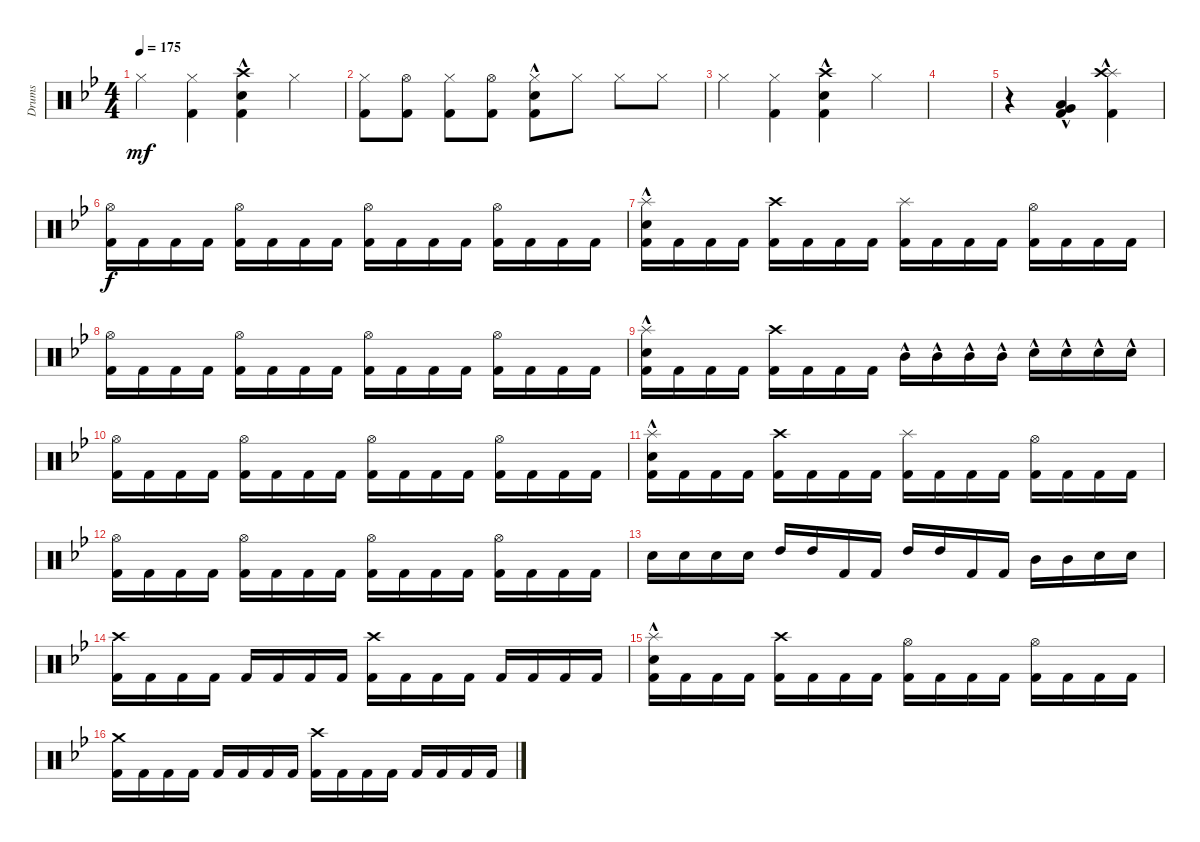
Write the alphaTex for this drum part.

\defaultSystemsLayout 4
\bracketExtendMode groupsimilarinstruments
\otherSystemsTrackNameOrientation horizontal
\track ("Drumkit" "Drums") {instrument percussion}
\staff {score}
\articulation defaults
\ts (4 4)
\tempo 175
\clef neutral
\scale
0.333333
\ks bb "Hi-Hat (closed)"{acc forcenatural}.4{dy mf}
("Kick (hit) 2"{acc forcenatural} "Hi-Hat (closed)"{acc forcenatural}).4 ("Snare (hit) 2"{hac acc forcenatural} "Crash high (hit)"{acc forcenatural} "Kick (hit) 2"{acc forcenatural}).4 "Hi-Hat (closed)"{acc forcenatural}.4 |
\scale
0.333333 ("Kick (hit) 2"{acc forcenatural} "Hi-Hat (closed)"{acc forcenatural}).8 ("Kick (hit) 2"{acc forcenatural} "Hi-Hat (open)"{acc forcenatural}).8 ("Kick (hit) 2"{acc forcenatural} "Hi-Hat (closed)"{acc forcenatural}).8 ("Kick (hit) 2"{acc forcenatural} "Hi-Hat (open)"{acc forcenatural}).8 ("Kick (hit) 2"{acc forcenatural} "Snare (hit) 2"{hac acc forcenatural} "Hi-Hat (closed)"{acc forcenatural}).8 "Hi-Hat (closed)"{acc forcenatural}.8 "Hi-Hat (closed)"{acc forcenatural}.8 "Hi-Hat (closed)"{acc forcenatural}.8 |
\scale
0.333333 "Hi-Hat (closed)"{acc forcenatural}.4 ("Kick (hit) 2"{acc forcenatural} "Hi-Hat (closed)"{acc forcenatural}).4 ("Snare (hit) 2"{hac acc forcenatural} "Crash high (hit)"{acc forcenatural} "Kick (hit) 2"{acc forcenatural}).4 "Hi-Hat (closed)"{acc forcenatural}.4 |
\scale
0.333333 |
\scale
0.333333 r.4 ("Kick (hit) 2"{hac acc forcenatural} "Very Low Tom (hit)"{hac acc forcenatural} "Low Tom (hit)"{hac acc forcenatural}).4 ("Splash (hit)"{hac acc forcenatural} "Crash high (hit)"{acc forcenatural} "Kick (hit) 2"{hac acc forcenatural}).4 |
\scale
0.333333 ("Kick (hit) 2"{acc forcenatural} "Hi-Hat (open)"{acc forcenatural}).16{dy f} "Kick (hit) 2"{acc forcenatural}.16 "Kick (hit) 2"{acc forcenatural}.16 "Kick (hit) 2"{acc forcenatural}.16 ("Kick (hit) 2"{acc forcenatural} "Hi-Hat (open)"{acc forcenatural}).16 "Kick (hit) 2"{acc forcenatural}.16 "Kick (hit) 2"{acc forcenatural}.16 "Kick (hit) 2"{acc forcenatural}.16 ("Kick (hit) 2"{acc forcenatural} "Hi-Hat (open)"{acc forcenatural}).16 "Kick (hit) 2"{acc forcenatural}.16 "Kick (hit) 2"{acc forcenatural}.16 "Kick (hit) 2"{acc forcenatural}.16 ("Kick (hit) 2"{acc forcenatural} "Hi-Hat (open)"{acc forcenatural}).16 "Kick (hit) 2"{acc forcenatural}.16 "Kick (hit) 2"{acc forcenatural}.16 "Kick (hit) 2"{acc forcenatural}.16 |
\scale
0.333333 ("Kick (hit) 2"{acc forcenatural} "Snare (hit) 2"{hac acc forcenatural} "Splash (hit)"{acc forcenatural}).16 "Kick (hit) 2"{acc forcenatural}.16 "Kick (hit) 2"{acc forcenatural}.16 "Kick (hit) 2"{acc forcenatural}.16 ("Kick (hit) 2"{acc forcenatural} "Crash high (hit)"{acc forcenatural}).16 "Kick (hit) 2"{acc forcenatural}.16 "Kick (hit) 2"{acc forcenatural}.16 "Kick (hit) 2"{acc forcenatural}.16 ("Kick (hit) 2"{acc forcenatural} "Splash (hit)"{acc forcenatural}).16 "Kick (hit) 2"{acc forcenatural}.16 "Kick (hit) 2"{acc forcenatural}.16 "Kick (hit) 2"{acc forcenatural}.16 ("Kick (hit) 2"{acc forcenatural} "Hi-Hat (open)"{acc forcenatural}).16 "Kick (hit) 2"{acc forcenatural}.16 "Kick (hit) 2"{acc forcenatural}.16 "Kick (hit) 2"{acc forcenatural}.16 |
\scale
0.333333 ("Kick (hit) 2"{acc forcenatural} "Hi-Hat (open)"{acc forcenatural}).16 "Kick (hit) 2"{acc forcenatural}.16 "Kick (hit) 2"{acc forcenatural}.16 "Kick (hit) 2"{acc forcenatural}.16 ("Kick (hit) 2"{acc forcenatural} "Hi-Hat (open)"{acc forcenatural}).16 "Kick (hit) 2"{acc forcenatural}.16 "Kick (hit) 2"{acc forcenatural}.16 "Kick (hit) 2"{acc forcenatural}.16 ("Kick (hit) 2"{acc forcenatural} "Hi-Hat (open)"{acc forcenatural}).16 "Kick (hit) 2"{acc forcenatural}.16 "Kick (hit) 2"{acc forcenatural}.16 "Kick (hit) 2"{acc forcenatural}.16 ("Kick (hit) 2"{acc forcenatural} "Hi-Hat (open)"{acc forcenatural}).16 "Kick (hit) 2"{acc forcenatural}.16 "Kick (hit) 2"{acc forcenatural}.16 "Kick (hit) 2"{acc forcenatural}.16 |
\scale
0.333333 ("Kick (hit) 2"{acc forcenatural} "Snare (hit) 2"{hac acc forcenatural} "Splash (hit)"{acc forcenatural}).16 "Kick (hit) 2"{acc forcenatural}.16 "Kick (hit) 2"{acc forcenatural}.16 "Kick (hit) 2"{acc forcenatural}.16 ("Kick (hit) 2"{acc forcenatural} "Crash high (hit)"{acc forcenatural}).16 "Kick (hit) 2"{acc forcenatural}.16 "Kick (hit) 2"{acc forcenatural}.16 "Kick (hit) 2"{acc forcenatural}.16 "Mid Tom (hit)"{hac acc forcenatural}.16 "Mid Tom (hit)"{hac acc forcenatural}.16 "Mid Tom (hit)"{hac acc forcenatural}.16 "Mid Tom (hit)"{hac acc forcenatural}.16 "Snare (hit) 2"{hac acc forcenatural}.16 "Snare (hit) 2"{hac acc forcenatural}.16 "Snare (hit) 2"{hac acc forcenatural}.16 "Snare (hit) 2"{hac acc forcenatural}.16 |
\scale
0.333333 ("Kick (hit) 2"{acc forcenatural} "Hi-Hat (open)"{acc forcenatural}).16 "Kick (hit) 2"{acc forcenatural}.16 "Kick (hit) 2"{acc forcenatural}.16 "Kick (hit) 2"{acc forcenatural}.16 ("Kick (hit) 2"{acc forcenatural} "Hi-Hat (open)"{acc forcenatural}).16 "Kick (hit) 2"{acc forcenatural}.16 "Kick (hit) 2"{acc forcenatural}.16 "Kick (hit) 2"{acc forcenatural}.16 ("Kick (hit) 2"{acc forcenatural} "Hi-Hat (open)"{acc forcenatural}).16 "Kick (hit) 2"{acc forcenatural}.16 "Kick (hit) 2"{acc forcenatural}.16 "Kick (hit) 2"{acc forcenatural}.16 ("Kick (hit) 2"{acc forcenatural} "Hi-Hat (open)"{acc forcenatural}).16 "Kick (hit) 2"{acc forcenatural}.16 "Kick (hit) 2"{acc forcenatural}.16 "Kick (hit) 2"{acc forcenatural}.16 |
\scale
0.333333 ("Kick (hit) 2"{acc forcenatural} "Snare (hit) 2"{hac acc forcenatural} "Splash (hit)"{acc forcenatural}).16 "Kick (hit) 2"{acc forcenatural}.16 "Kick (hit) 2"{acc forcenatural}.16 "Kick (hit) 2"{acc forcenatural}.16 ("Kick (hit) 2"{acc forcenatural} "Crash high (hit)"{acc forcenatural}).16 "Kick (hit) 2"{acc forcenatural}.16 "Kick (hit) 2"{acc forcenatural}.16 "Kick (hit) 2"{acc forcenatural}.16 ("Kick (hit) 2"{acc forcenatural} "Splash (hit)"{acc forcenatural}).16 "Kick (hit) 2"{acc forcenatural}.16 "Kick (hit) 2"{acc forcenatural}.16 "Kick (hit) 2"{acc forcenatural}.16 ("Kick (hit) 2"{acc forcenatural} "Hi-Hat (open)"{acc forcenatural}).16 "Kick (hit) 2"{acc forcenatural}.16 "Kick (hit) 2"{acc forcenatural}.16 "Kick (hit) 2"{acc forcenatural}.16 |
\scale
0.333333 ("Kick (hit) 2"{acc forcenatural} "Hi-Hat (open)"{acc forcenatural}).16 "Kick (hit) 2"{acc forcenatural}.16 "Kick (hit) 2"{acc forcenatural}.16 "Kick (hit) 2"{acc forcenatural}.16 ("Kick (hit) 2"{acc forcenatural} "Hi-Hat (open)"{acc forcenatural}).16 "Kick (hit) 2"{acc forcenatural}.16 "Kick (hit) 2"{acc forcenatural}.16 "Kick (hit) 2"{acc forcenatural}.16 ("Kick (hit) 2"{acc forcenatural} "Hi-Hat (open)"{acc forcenatural}).16 "Kick (hit) 2"{acc forcenatural}.16 "Kick (hit) 2"{acc forcenatural}.16 "Kick (hit) 2"{acc forcenatural}.16 ("Kick (hit) 2"{acc forcenatural} "Hi-Hat (open)"{acc forcenatural}).16 "Kick (hit) 2"{acc forcenatural}.16 "Kick (hit) 2"{acc forcenatural}.16 "Kick (hit) 2"{acc forcenatural}.16 |
\scale
0.333333 "Snare (hit) 2"{acc forcenatural}.16 "Snare (hit) 2"{acc forcenatural}.16 "Snare (hit) 2"{acc forcenatural}.16 "Snare (hit) 2"{acc forcenatural}.16 "High Tom (hit)"{acc forcenatural}.16 "High Tom (hit)"{acc forcenatural}.16 "Kick (hit) 2"{acc forcenatural}.16 "Kick (hit) 2"{acc forcenatural}.16 "High Tom (hit)"{acc forcenatural}.16 "High Tom (hit)"{acc forcenatural}.16 "Kick (hit) 2"{acc forcenatural}.16 "Kick (hit) 2"{acc forcenatural}.16 "Mid Tom (hit)"{acc forcenatural}.16 "Mid Tom (hit)"{acc forcenatural}.16 "Snare (hit) 2"{acc forcenatural}.16 "Snare (hit) 2"{acc forcenatural}.16 |
\scale
0.333333 ("Kick (hit) 2"{acc forcenatural} "Crash high (hit)"{acc forcenatural}).16 "Kick (hit) 2"{acc forcenatural}.16 "Kick (hit) 2"{acc forcenatural}.16 "Kick (hit) 2"{acc forcenatural}.16 "Kick (hit) 2"{acc forcenatural}.16 "Kick (hit) 2"{acc forcenatural}.16 "Kick (hit) 2"{acc forcenatural}.16 "Kick (hit) 2"{acc forcenatural}.16 ("Kick (hit) 2"{acc forcenatural} "Crash high (hit)"{acc forcenatural}).16 "Kick (hit) 2"{acc forcenatural}.16 "Kick (hit) 2"{acc forcenatural}.16 "Kick (hit) 2"{acc forcenatural}.16 "Kick (hit) 2"{acc forcenatural}.16 "Kick (hit) 2"{acc forcenatural}.16 "Kick (hit) 2"{acc forcenatural}.16 "Kick (hit) 2"{acc forcenatural}.16 |
\scale
0.333333 ("Kick (hit) 2"{acc forcenatural} "Snare (hit) 2"{hac acc forcenatural} "Splash (hit)"{acc forcenatural}).16 "Kick (hit) 2"{acc forcenatural}.16 "Kick (hit) 2"{acc forcenatural}.16 "Kick (hit) 2"{acc forcenatural}.16 ("Kick (hit) 2"{acc forcenatural} "Crash high (hit)"{acc forcenatural}).16 "Kick (hit) 2"{acc forcenatural}.16 "Kick (hit) 2"{acc forcenatural}.16 "Kick (hit) 2"{acc forcenatural}.16 ("Kick (hit) 2"{acc forcenatural} "Hi-Hat (open)"{acc forcenatural}).16 "Kick (hit) 2"{acc forcenatural}.16 "Kick (hit) 2"{acc forcenatural}.16 "Kick (hit) 2"{acc forcenatural}.16 ("Kick (hit) 2"{acc forcenatural} "Hi-Hat (open)"{acc forcenatural}).16 "Kick (hit) 2"{acc forcenatural}.16 "Kick (hit) 2"{acc forcenatural}.16 "Kick (hit) 2"{acc forcenatural}.16 |
\scale
0.333333 ("Kick (hit) 2"{acc forcenatural} "Crash medium (hit)"{acc forcenatural}).16 "Kick (hit) 2"{acc forcenatural}.16 "Kick (hit) 2"{acc forcenatural}.16 "Kick (hit) 2"{acc forcenatural}.16 "Kick (hit) 2"{acc forcenatural}.16 "Kick (hit) 2"{acc forcenatural}.16 "Kick (hit) 2"{acc forcenatural}.16 "Kick (hit) 2"{acc forcenatural}.16 ("Kick (hit) 2"{acc forcenatural} "Crash high (hit)"{acc forcenatural}).16 "Kick (hit) 2"{acc forcenatural}.16 "Kick (hit) 2"{acc forcenatural}.16 "Kick (hit) 2"{acc forcenatural}.16 "Kick (hit) 2"{acc forcenatural}.16 "Kick (hit) 2"{acc forcenatural}.16 "Kick (hit) 2"{acc forcenatural}.16 "Kick (hit) 2"{acc forcenatural}.16
